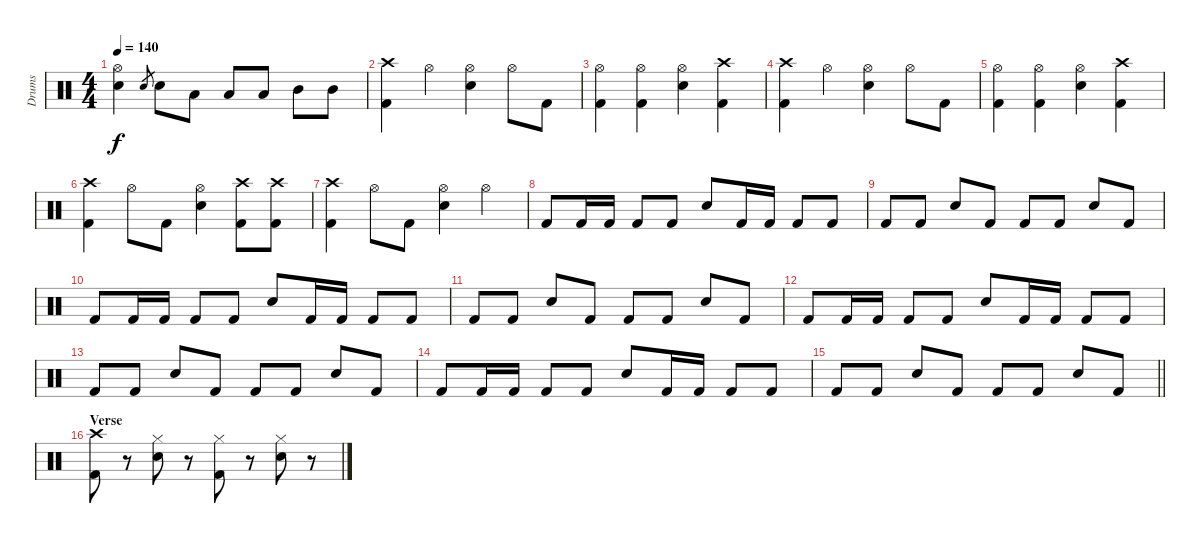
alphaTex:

\track ("Drums" "Drums") {instrument percussion}
\staff {score}
\articulation defaults
\ts (4 4)
\tempo 140
\clef neutral
\ks c
("Hi-Hat (open)" "Electric Snare (hit)").4{dy f} "Electric Snare (hit)".8{gr} "Electric Snare (hit)".8 "Low Tom (hit)".8 "Low Tom (hit)".8 "Low Tom (hit)".8 "Mid Tom (hit)".8 "Mid Tom (hit)".8 |
("Crash high (hit)" "Kick (hit) 2").4 "Hi-Hat (open)".4 ("Hi-Hat (open)" "Electric Snare (hit)").4 "Hi-Hat (open)".8 "Kick (hit) 2".8 |
("Hi-Hat (open)" "Kick (hit) 2").4 ("Hi-Hat (open)" "Kick (hit) 2").4 ("Hi-Hat (open)" "Electric Snare (hit)").4 ("Crash high (hit)" "Kick (hit) 2").4 |
("Crash high (hit)" "Kick (hit) 2").4 "Hi-Hat (open)".4 ("Hi-Hat (open)" "Electric Snare (hit)").4 "Hi-Hat (open)".8 "Kick (hit) 2".8 |
("Hi-Hat (open)" "Kick (hit) 2").4 ("Hi-Hat (open)" "Kick (hit) 2").4 ("Hi-Hat (open)" "Electric Snare (hit)").4 ("Crash high (hit)" "Kick (hit) 2").4 |
("Crash high (hit)" "Kick (hit) 2").4 "Hi-Hat (open)".8 "Kick (hit) 2".8 ("Hi-Hat (open)" "Electric Snare (hit)").4 ("Crash high (hit)" "Kick (hit) 2").8 ("Crash high (hit)" "Kick (hit) 2").8 |
("Crash high (hit)" "Kick (hit) 2").4 "Hi-Hat (open)".8 "Kick (hit) 2".8 ("Hi-Hat (open)" "Electric Snare (hit)").4 "Hi-Hat (open)".4 |
"Kick (hit) 2".8 "Kick (hit) 2".16 "Kick (hit) 2".16 "Kick (hit) 2".8 "Kick (hit) 2".8 "Electric Snare (hit)".8 "Kick (hit) 2".16 "Kick (hit) 2".16 "Kick (hit) 2".8 "Kick (hit) 2".8 |
"Kick (hit) 2".8 "Kick (hit) 2".8 "Electric Snare (hit)".8 "Kick (hit) 2".8 "Kick (hit) 2".8 "Kick (hit) 2".8 "Electric Snare (hit)".8 "Kick (hit) 2".8 |
"Kick (hit) 2".8 "Kick (hit) 2".16 "Kick (hit) 2".16 "Kick (hit) 2".8 "Kick (hit) 2".8 "Electric Snare (hit)".8 "Kick (hit) 2".16 "Kick (hit) 2".16 "Kick (hit) 2".8 "Kick (hit) 2".8 |
"Kick (hit) 2".8 "Kick (hit) 2".8 "Electric Snare (hit)".8 "Kick (hit) 2".8 "Kick (hit) 2".8 "Kick (hit) 2".8 "Electric Snare (hit)".8 "Kick (hit) 2".8 |
"Kick (hit) 2".8 "Kick (hit) 2".16 "Kick (hit) 2".16 "Kick (hit) 2".8 "Kick (hit) 2".8 "Electric Snare (hit)".8 "Kick (hit) 2".16 "Kick (hit) 2".16 "Kick (hit) 2".8 "Kick (hit) 2".8 |
"Kick (hit) 2".8 "Kick (hit) 2".8 "Electric Snare (hit)".8 "Kick (hit) 2".8 "Kick (hit) 2".8 "Kick (hit) 2".8 "Electric Snare (hit)".8 "Kick (hit) 2".8 |
"Kick (hit) 2".8 "Kick (hit) 2".16 "Kick (hit) 2".16 "Kick (hit) 2".8 "Kick (hit) 2".8 "Electric Snare (hit)".8 "Kick (hit) 2".16 "Kick (hit) 2".16 "Kick (hit) 2".8 "Kick (hit) 2".8 |
\barLineRight lightlight "Kick (hit) 2".8 "Kick (hit) 2".8 "Electric Snare (hit)".8 "Kick (hit) 2".8 "Kick (hit) 2".8 "Kick (hit) 2".8 "Electric Snare (hit)".8 "Kick (hit) 2".8
|
\section ("" "Verse")
("Crash high (hit)" "Kick (hit) 2").8 r.8 ("Hi-Hat (closed)" "Electric Snare (hit)").8 r.8 ("Hi-Hat (closed)" "Kick (hit) 2").8 r.8 ("Hi-Hat (closed)" "Electric Snare (hit)").8 r.8
